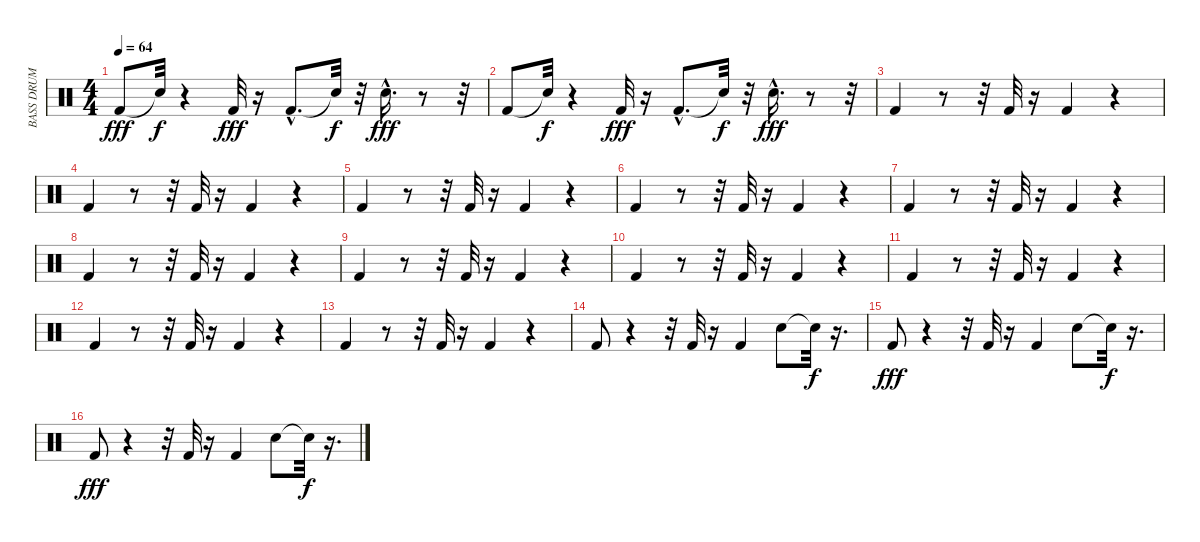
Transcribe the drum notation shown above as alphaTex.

\track ("BASS DRUM" "BASS DRUM") {instrument percussion}
\staff {score}
\articulation defaults
\ts (4 4)
\tempo 64
\clef neutral
\ks c "Kick (hit) 2".8{dy fff} "Snare (hit)"{t}.32{dy f}
r.4 "Kick (hit) 2".32{dy fff} r.16 "Kick (hit) 2"{hac}.8{d} "Snare (hit)"{t}.32{dy f} r.32 "Snare (hit) 2"{hac}.16{d dy fff} r.8 r.32 |
"Kick (hit) 2".8 "Snare (hit)"{t}.32{dy f} r.4 "Kick (hit) 2".32{dy fff} r.16 "Kick (hit) 2"{hac}.8{d} "Snare (hit)"{t}.32{dy f} r.32 "Snare (hit) 2"{hac}.16{d dy fff} r.8 r.32 |
"Kick (hit) 2".4 r.8 r.32 "Kick (hit) 2".32 r.16 "Kick (hit) 2".4 r.4 |
"Kick (hit) 2".4 r.8 r.32 "Kick (hit) 2".32 r.16 "Kick (hit) 2".4 r.4 |
"Kick (hit) 2".4 r.8 r.32 "Kick (hit) 2".32 r.16 "Kick (hit) 2".4 r.4 |
"Kick (hit) 2".4 r.8 r.32 "Kick (hit) 2".32 r.16 "Kick (hit) 2".4 r.4 |
"Kick (hit) 2".4 r.8 r.32 "Kick (hit) 2".32 r.16 "Kick (hit) 2".4 r.4 |
"Kick (hit) 2".4 r.8 r.32 "Kick (hit) 2".32 r.16 "Kick (hit) 2".4 r.4 |
"Kick (hit) 2".4 r.8 r.32 "Kick (hit) 2".32 r.16 "Kick (hit) 2".4 r.4 |
"Kick (hit) 2".4 r.8 r.32 "Kick (hit) 2".32 r.16 "Kick (hit) 2".4 r.4 |
"Kick (hit) 2".4 r.8 r.32 "Kick (hit) 2".32 r.16 "Kick (hit) 2".4 r.4 |
"Kick (hit) 2".4 r.8 r.32 "Kick (hit) 2".32 r.16 "Kick (hit) 2".4 r.4 |
"Kick (hit) 2".4 r.8 r.32 "Kick (hit) 2".32 r.16 "Kick (hit) 2".4 r.4 |
"Kick (hit) 2".8 r.4 r.32 "Kick (hit) 2".32 r.16 "Kick (hit) 2".4 "Snare (hit) 2".8 "Snare (hit)"{t}.32{dy f} r.16{d} |
"Kick (hit) 2".8{dy fff} r.4 r.32 "Kick (hit) 2".32 r.16 "Kick (hit) 2".4 "Snare (hit) 2".8 "Snare (hit)"{t}.32{dy f} r.16{d} |
"Kick (hit) 2".8{dy fff} r.4 r.32 "Kick (hit) 2".32 r.16 "Kick (hit) 2".4 "Snare (hit) 2".8 "Snare (hit)"{t}.32{dy f} r.16{d}
